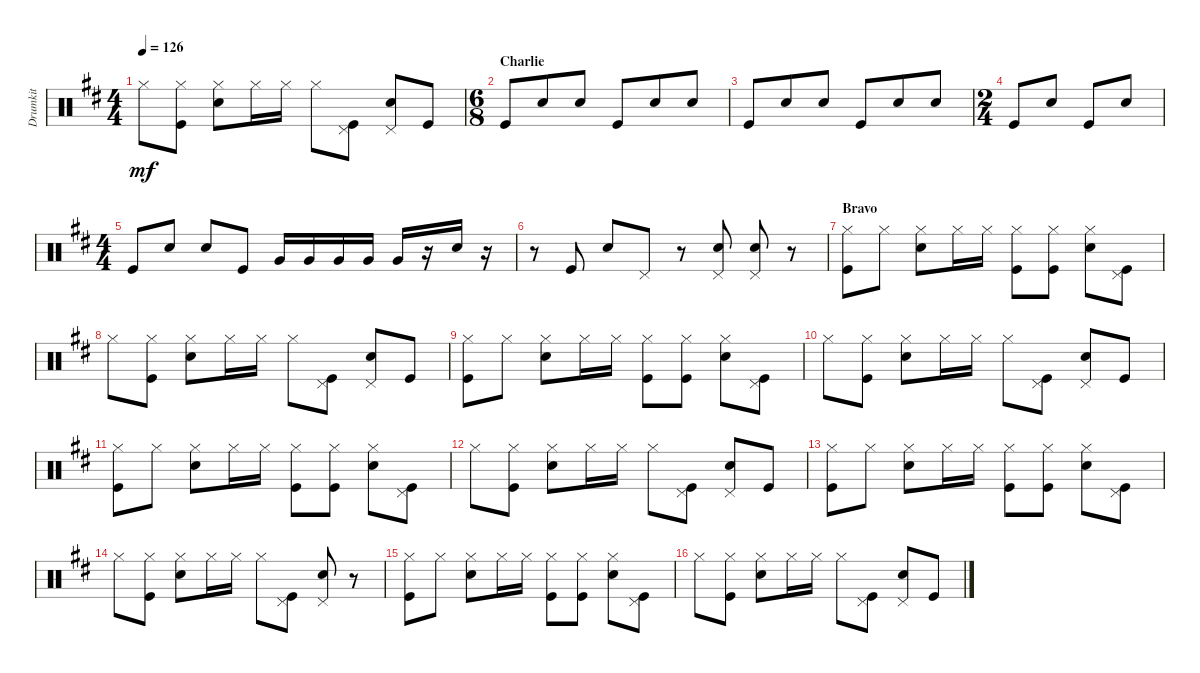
\track ("Drumkit" "Drumkit") {instrument percussion}
\staff {score}
\articulation defaults
\ts (4 4)
\tempo 126
\clef neutral
\ks bminor "Hi-Hat (closed)".8{dy mf}
("Hi-Hat (closed)" "Kick (hit)").8 ("Hi-Hat (closed)" "Snare (hit) 2").8 "Hi-Hat (closed)".16 "Hi-Hat (closed)".16 "Hi-Hat (closed)".8 ("Kick (hit)" "Pedal Hi-Hat (hit)").8 ("Snare (hit) 2" "Pedal Hi-Hat (hit)").8 "Kick (hit)".8 |
\ts (6 8)
\section ("" "Charlie")
"Kick (hit)".8 "Snare (hit) 2".8 "Snare (hit) 2".8 "Kick (hit)".8 "Snare (hit) 2".8 "Snare (hit) 2".8 |
"Kick (hit)".8 "Snare (hit) 2".8 "Snare (hit) 2".8 "Kick (hit)".8 "Snare (hit) 2".8 "Snare (hit) 2".8 |
\ts (2 4)
"Kick (hit)".8 "Snare (hit) 2".8 "Kick (hit)".8 "Snare (hit) 2".8 |
\ts (4 4)
"Kick (hit)".8 "Snare (hit) 2".8 "Snare (hit) 2".8 "Kick (hit)".8 "Very Low Tom (hit)".16 "Very Low Tom (hit)".16 "Very Low Tom (hit)".16 "Very Low Tom (hit)".16 "Very Low Tom (hit)".16 r.16 "Snare (hit) 2".16 r.16 |
r.8 "Kick (hit)".8 "Snare (hit) 2".8 "Pedal Hi-Hat (hit)".8 r.8 ("Snare (hit) 2" "Pedal Hi-Hat (hit)").8 ("Snare (hit) 2" "Pedal Hi-Hat (hit)").8 r.8 |
\section ("" "Bravo")
("Hi-Hat (closed)" "Kick (hit)").8 "Hi-Hat (closed)".8 ("Hi-Hat (closed)" "Snare (hit) 2").8 "Hi-Hat (closed)".16 "Hi-Hat (closed)".16 ("Hi-Hat (closed)" "Kick (hit)").8 ("Hi-Hat (closed)" "Kick (hit)").8 ("Hi-Hat (closed)" "Snare (hit) 2").8 ("Kick (hit)" "Pedal Hi-Hat (hit)").8 |
"Hi-Hat (closed)".8 ("Hi-Hat (closed)" "Kick (hit)").8 ("Hi-Hat (closed)" "Snare (hit) 2").8 "Hi-Hat (closed)".16 "Hi-Hat (closed)".16 "Hi-Hat (closed)".8 ("Kick (hit)" "Pedal Hi-Hat (hit)").8 ("Snare (hit) 2" "Pedal Hi-Hat (hit)").8 "Kick (hit)".8 |
("Hi-Hat (closed)" "Kick (hit)").8 "Hi-Hat (closed)".8 ("Hi-Hat (closed)" "Snare (hit) 2").8 "Hi-Hat (closed)".16 "Hi-Hat (closed)".16 ("Hi-Hat (closed)" "Kick (hit)").8 ("Hi-Hat (closed)" "Kick (hit)").8 ("Hi-Hat (closed)" "Snare (hit) 2").8 ("Kick (hit)" "Pedal Hi-Hat (hit)").8 |
"Hi-Hat (closed)".8 ("Hi-Hat (closed)" "Kick (hit)").8 ("Hi-Hat (closed)" "Snare (hit) 2").8 "Hi-Hat (closed)".16 "Hi-Hat (closed)".16 "Hi-Hat (closed)".8 ("Kick (hit)" "Pedal Hi-Hat (hit)").8 ("Snare (hit) 2" "Pedal Hi-Hat (hit)").8 "Kick (hit)".8 |
("Hi-Hat (closed)" "Kick (hit)").8 "Hi-Hat (closed)".8 ("Hi-Hat (closed)" "Snare (hit) 2").8 "Hi-Hat (closed)".16 "Hi-Hat (closed)".16 ("Hi-Hat (closed)" "Kick (hit)").8 ("Hi-Hat (closed)" "Kick (hit)").8 ("Hi-Hat (closed)" "Snare (hit) 2").8 ("Kick (hit)" "Pedal Hi-Hat (hit)").8 |
"Hi-Hat (closed)".8 ("Hi-Hat (closed)" "Kick (hit)").8 ("Hi-Hat (closed)" "Snare (hit) 2").8 "Hi-Hat (closed)".16 "Hi-Hat (closed)".16 "Hi-Hat (closed)".8 ("Kick (hit)" "Pedal Hi-Hat (hit)").8 ("Snare (hit) 2" "Pedal Hi-Hat (hit)").8 "Kick (hit)".8 |
("Hi-Hat (closed)" "Kick (hit)").8 "Hi-Hat (closed)".8 ("Hi-Hat (closed)" "Snare (hit) 2").8 "Hi-Hat (closed)".16 "Hi-Hat (closed)".16 ("Hi-Hat (closed)" "Kick (hit)").8 ("Hi-Hat (closed)" "Kick (hit)").8 ("Hi-Hat (closed)" "Snare (hit) 2").8 ("Kick (hit)" "Pedal Hi-Hat (hit)").8 |
"Hi-Hat (closed)".8 ("Hi-Hat (closed)" "Kick (hit)").8 ("Hi-Hat (closed)" "Snare (hit) 2").8 "Hi-Hat (closed)".16 "Hi-Hat (closed)".16 "Hi-Hat (closed)".8 ("Kick (hit)" "Pedal Hi-Hat (hit)").8 ("Snare (hit) 2" "Pedal Hi-Hat (hit)").8 r.8 |
("Hi-Hat (closed)" "Kick (hit)").8 "Hi-Hat (closed)".8 ("Hi-Hat (closed)" "Snare (hit) 2").8 "Hi-Hat (closed)".16 "Hi-Hat (closed)".16 ("Hi-Hat (closed)" "Kick (hit)").8 ("Hi-Hat (closed)" "Kick (hit)").8 ("Hi-Hat (closed)" "Snare (hit) 2").8 ("Kick (hit)" "Pedal Hi-Hat (hit)").8 |
"Hi-Hat (closed)".8 ("Hi-Hat (closed)" "Kick (hit)").8 ("Hi-Hat (closed)" "Snare (hit) 2").8 "Hi-Hat (closed)".16 "Hi-Hat (closed)".16 "Hi-Hat (closed)".8 ("Kick (hit)" "Pedal Hi-Hat (hit)").8 ("Snare (hit) 2" "Pedal Hi-Hat (hit)").8 "Kick (hit)".8
